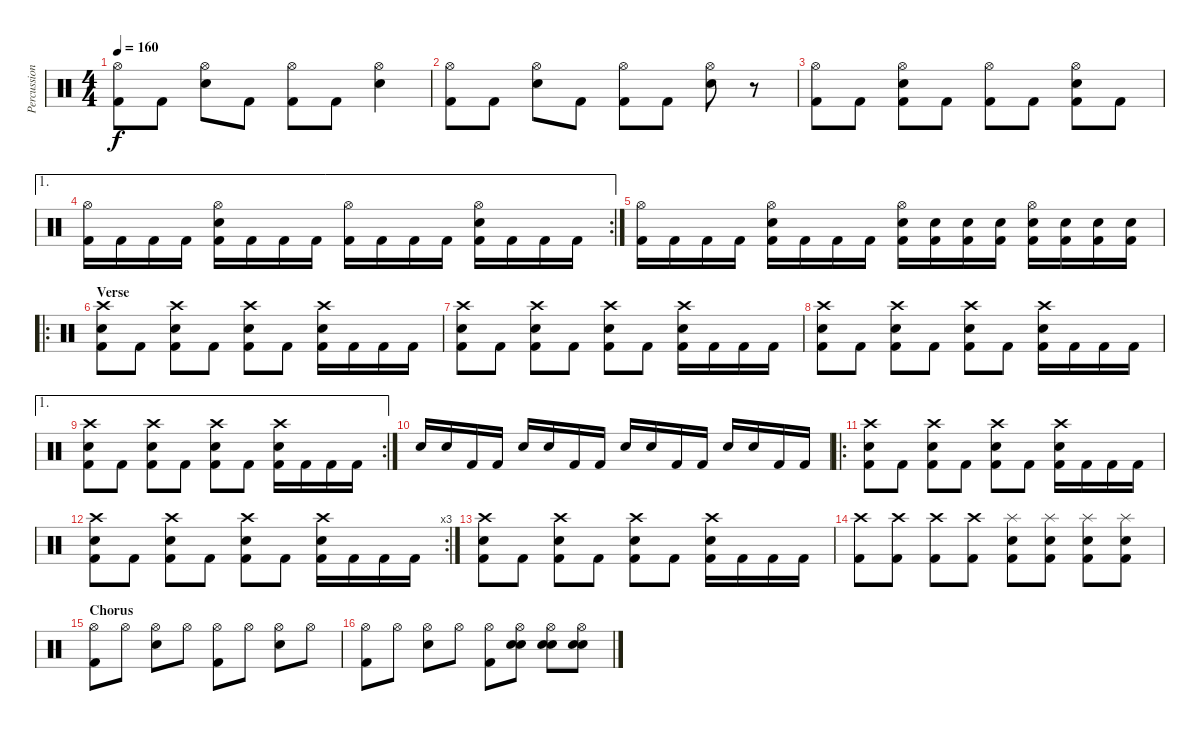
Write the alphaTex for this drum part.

\track ("Percussion" "Percussion") {instrument percussion}
\staff {score}
\articulation defaults
\ts (4 4)
\tempo 160
\clef neutral
\ks c
("Hi-Hat (open)" "Kick (hit) 2").8{dy f} "Kick (hit) 2".8 ("Hi-Hat (open)" "Snare (hit) 2").8 "Kick (hit) 2".8 ("Hi-Hat (open)" "Kick (hit) 2").8 "Kick (hit) 2".8 ("Hi-Hat (open)" "Snare (hit) 2").4 |
("Hi-Hat (open)" "Kick (hit) 2").8 "Kick (hit) 2".8 ("Hi-Hat (open)" "Snare (hit) 2").8 "Kick (hit) 2".8 ("Hi-Hat (open)" "Kick (hit) 2").8 "Kick (hit) 2".8 ("Hi-Hat (open)" "Snare (hit) 2").8 r.8 |
("Hi-Hat (open)" "Kick (hit) 2").8 "Kick (hit) 2".8 ("Hi-Hat (open)" "Snare (hit) 2" "Kick (hit) 2").8 "Kick (hit) 2".8 ("Hi-Hat (open)" "Kick (hit) 2").8 "Kick (hit) 2".8 ("Hi-Hat (open)" "Snare (hit) 2" "Kick (hit) 2").8 "Kick (hit) 2".8 |
\ae 1
\rc 2
("Hi-Hat (open)" "Kick (hit) 2").16 "Kick (hit) 2".16 "Kick (hit) 2".16 "Kick (hit) 2".16 ("Hi-Hat (open)" "Snare (hit) 2" "Kick (hit) 2").16 "Kick (hit) 2".16 "Kick (hit) 2".16 "Kick (hit) 2".16 ("Hi-Hat (open)" "Kick (hit) 2").16 "Kick (hit) 2".16 "Kick (hit) 2".16 "Kick (hit) 2".16 ("Hi-Hat (open)" "Snare (hit) 2" "Kick (hit) 2").16 "Kick (hit) 2".16 "Kick (hit) 2".16 "Kick (hit) 2".16 |
("Hi-Hat (open)" "Kick (hit) 2").16 "Kick (hit) 2".16 "Kick (hit) 2".16 "Kick (hit) 2".16 ("Hi-Hat (open)" "Snare (hit) 2" "Kick (hit) 2").16 "Kick (hit) 2".16 "Kick (hit) 2".16 "Kick (hit) 2".16 ("Hi-Hat (open)" "Snare (hit) 2" "Kick (hit) 2").16 ("Snare (hit) 2" "Kick (hit) 2").16 ("Snare (hit) 2" "Kick (hit) 2").16 ("Snare (hit) 2" "Kick (hit) 2").16 ("Hi-Hat (open)" "Snare (hit) 2" "Kick (hit) 2").16 ("Snare (hit) 2" "Kick (hit) 2").16 ("Snare (hit) 2" "Kick (hit) 2").16 ("Snare (hit) 2" "Kick (hit) 2").16 |
\ro
\section ("" "Verse")
("Crash high (hit)" "Snare (hit) 2" "Kick (hit) 2").8 "Kick (hit) 2".8 ("Crash high (hit)" "Snare (hit) 2" "Kick (hit) 2").8 "Kick (hit) 2".8 ("Crash high (hit)" "Snare (hit) 2" "Kick (hit) 2").8 "Kick (hit) 2".8 ("Crash high (hit)" "Snare (hit) 2" "Kick (hit) 2").16 "Kick (hit) 2".16 "Kick (hit) 2".16 "Kick (hit) 2".16 |
("Crash high (hit)" "Snare (hit) 2" "Kick (hit) 2").8 "Kick (hit) 2".8 ("Crash high (hit)" "Snare (hit) 2" "Kick (hit) 2").8 "Kick (hit) 2".8 ("Crash high (hit)" "Snare (hit) 2" "Kick (hit) 2").8 "Kick (hit) 2".8 ("Crash high (hit)" "Snare (hit) 2" "Kick (hit) 2").16 "Kick (hit) 2".16 "Kick (hit) 2".16 "Kick (hit) 2".16 |
("Crash high (hit)" "Snare (hit) 2" "Kick (hit) 2").8 "Kick (hit) 2".8 ("Crash high (hit)" "Snare (hit) 2" "Kick (hit) 2").8 "Kick (hit) 2".8 ("Crash high (hit)" "Snare (hit) 2" "Kick (hit) 2").8 "Kick (hit) 2".8 ("Crash high (hit)" "Snare (hit) 2" "Kick (hit) 2").16 "Kick (hit) 2".16 "Kick (hit) 2".16 "Kick (hit) 2".16 |
\ae 1
\rc 2
("Crash high (hit)" "Snare (hit) 2" "Kick (hit) 2").8 "Kick (hit) 2".8 ("Crash high (hit)" "Snare (hit) 2" "Kick (hit) 2").8 "Kick (hit) 2".8 ("Crash high (hit)" "Snare (hit) 2" "Kick (hit) 2").8 "Kick (hit) 2".8 ("Crash high (hit)" "Snare (hit) 2" "Kick (hit) 2").16 "Kick (hit) 2".16 "Kick (hit) 2".16 "Kick (hit) 2".16 |
"Snare (hit) 2".16 "Snare (hit) 2".16 "Kick (hit) 2".16 "Kick (hit) 2".16 "Snare (hit) 2".16 "Snare (hit) 2".16 "Kick (hit) 2".16 "Kick (hit) 2".16 "Snare (hit) 2".16 "Snare (hit) 2".16 "Kick (hit) 2".16 "Kick (hit) 2".16 "Snare (hit) 2".16 "Snare (hit) 2".16 "Kick (hit) 2".16 "Kick (hit) 2".16 |
\ro
("Crash high (hit)" "Snare (hit) 2" "Kick (hit) 2").8 "Kick (hit) 2".8 ("Crash high (hit)" "Snare (hit) 2" "Kick (hit) 2").8 "Kick (hit) 2".8 ("Crash high (hit)" "Snare (hit) 2" "Kick (hit) 2").8 "Kick (hit) 2".8 ("Crash high (hit)" "Snare (hit) 2" "Kick (hit) 2").16 "Kick (hit) 2".16 "Kick (hit) 2".16 "Kick (hit) 2".16 |
\rc 3
("Crash high (hit)" "Snare (hit) 2" "Kick (hit) 2").8 "Kick (hit) 2".8 ("Crash high (hit)" "Snare (hit) 2" "Kick (hit) 2").8 "Kick (hit) 2".8 ("Crash high (hit)" "Snare (hit) 2" "Kick (hit) 2").8 "Kick (hit) 2".8 ("Crash high (hit)" "Snare (hit) 2" "Kick (hit) 2").16 "Kick (hit) 2".16 "Kick (hit) 2".16 "Kick (hit) 2".16 |
("Crash high (hit)" "Snare (hit) 2" "Kick (hit) 2").8 "Kick (hit) 2".8 ("Crash high (hit)" "Snare (hit) 2" "Kick (hit) 2").8 "Kick (hit) 2".8 ("Crash high (hit)" "Snare (hit) 2" "Kick (hit) 2").8 "Kick (hit) 2".8 ("Crash high (hit)" "Snare (hit) 2" "Kick (hit) 2").16 "Kick (hit) 2".16 "Kick (hit) 2".16 "Kick (hit) 2".16 |
("Crash high (hit)" "Kick (hit) 2").8 ("Crash high (hit)" "Kick (hit) 2").8 ("Crash high (hit)" "Kick (hit) 2").8 ("Crash high (hit)" "Kick (hit) 2").8 ("Splash (hit)" "Snare (hit) 2" "Kick (hit) 2").8 ("Splash (hit)" "Snare (hit) 2" "Kick (hit) 2").8 ("Splash (hit)" "Snare (hit) 2" "Kick (hit) 2").8 ("Splash (hit)" "Snare (hit) 2" "Kick (hit) 2").8 |
\section ("" "Chorus")
("Hi-Hat (open)" "Kick (hit) 2").8 "Hi-Hat (open)".8 ("Hi-Hat (open)" "Snare (hit) 2").8 "Hi-Hat (open)".8 ("Hi-Hat (open)" "Kick (hit) 2").8 "Hi-Hat (open)".8 ("Hi-Hat (open)" "Snare (hit) 2").8 "Hi-Hat (open)".8 |
("Hi-Hat (open)" "Kick (hit) 2").8 "Hi-Hat (open)".8 ("Hi-Hat (open)" "Snare (hit) 2").8 "Hi-Hat (open)".8 ("Hi-Hat (open)" "Kick (hit) 2").8 ("Hi-Hat (open)" "Snare (hit) 2" "Snare (hit) 2").8 ("Hi-Hat (open)" "Snare (hit) 2" "Snare (hit) 2").8 ("Hi-Hat (open)" "Snare (hit) 2" "Snare (hit) 2").8
